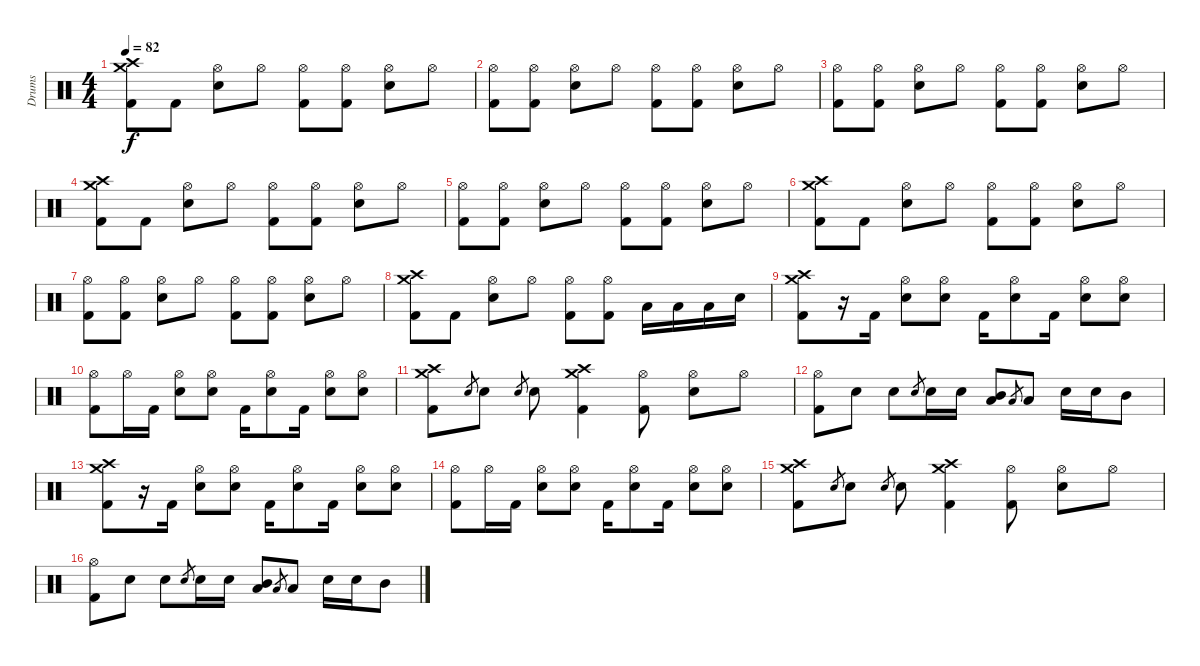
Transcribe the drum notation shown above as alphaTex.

\track ("Drums" "Drums") {instrument percussion}
\staff {score}
\articulation defaults
\ts (4 4)
\tempo 82
\clef neutral
\ks c
("Crash high (hit)" "Crash medium (hit)" "Kick (hit) 2").8{dy f} "Kick (hit) 2".8 ("Hi-Hat (open)" "Electric Snare (hit)").8 "Hi-Hat (open)".8 ("Hi-Hat (open)" "Kick (hit) 2").8 ("Hi-Hat (open)" "Kick (hit) 2").8 ("Hi-Hat (open)" "Electric Snare (hit)").8 "Hi-Hat (open)".8 |
("Hi-Hat (open)" "Kick (hit) 2").8 ("Hi-Hat (open)" "Kick (hit) 2").8 ("Hi-Hat (open)" "Electric Snare (hit)").8 "Hi-Hat (open)".8 ("Hi-Hat (open)" "Kick (hit) 2").8 ("Hi-Hat (open)" "Kick (hit) 2").8 ("Hi-Hat (open)" "Electric Snare (hit)").8 "Hi-Hat (open)".8 |
("Hi-Hat (open)" "Kick (hit) 2").8 ("Hi-Hat (open)" "Kick (hit) 2").8 ("Hi-Hat (open)" "Electric Snare (hit)").8 "Hi-Hat (open)".8 ("Hi-Hat (open)" "Kick (hit) 2").8 ("Hi-Hat (open)" "Kick (hit) 2").8 ("Hi-Hat (open)" "Electric Snare (hit)").8 "Hi-Hat (open)".8 |
("Crash high (hit)" "Crash medium (hit)" "Kick (hit) 2").8 "Kick (hit) 2".8 ("Hi-Hat (open)" "Electric Snare (hit)").8 "Hi-Hat (open)".8 ("Hi-Hat (open)" "Kick (hit) 2").8 ("Hi-Hat (open)" "Kick (hit) 2").8 ("Hi-Hat (open)" "Electric Snare (hit)").8 "Hi-Hat (open)".8 |
("Hi-Hat (open)" "Kick (hit) 2").8 ("Hi-Hat (open)" "Kick (hit) 2").8 ("Hi-Hat (open)" "Electric Snare (hit)").8 "Hi-Hat (open)".8 ("Hi-Hat (open)" "Kick (hit) 2").8 ("Hi-Hat (open)" "Kick (hit) 2").8 ("Hi-Hat (open)" "Electric Snare (hit)").8 "Hi-Hat (open)".8 |
("Crash high (hit)" "Crash medium (hit)" "Kick (hit) 2").8 "Kick (hit) 2".8 ("Hi-Hat (open)" "Electric Snare (hit)").8 "Hi-Hat (open)".8 ("Hi-Hat (open)" "Kick (hit) 2").8 ("Hi-Hat (open)" "Kick (hit) 2").8 ("Hi-Hat (open)" "Electric Snare (hit)").8 "Hi-Hat (open)".8 |
("Hi-Hat (open)" "Kick (hit) 2").8 ("Hi-Hat (open)" "Kick (hit) 2").8 ("Hi-Hat (open)" "Electric Snare (hit)").8 "Hi-Hat (open)".8 ("Hi-Hat (open)" "Kick (hit) 2").8 ("Hi-Hat (open)" "Kick (hit) 2").8 ("Hi-Hat (open)" "Electric Snare (hit)").8 "Hi-Hat (open)".8 |
("Crash high (hit)" "Crash medium (hit)" "Kick (hit) 2").8 "Kick (hit) 2".8 ("Hi-Hat (open)" "Electric Snare (hit)").8 "Hi-Hat (open)".8 ("Hi-Hat (open)" "Kick (hit) 2").8 ("Hi-Hat (open)" "Kick (hit) 2").8 "Low Tom (hit)".16 "Low Tom (hit)".16 "Low Tom (hit)".16 "Electric Snare (hit)".16 |
("Crash high (hit)" "Crash medium (hit)" "Kick (hit) 2").8 r.16 "Kick (hit) 2".16 ("Hi-Hat (open)" "Electric Snare (hit)").8 ("Hi-Hat (open)" "Electric Snare (hit)").8 "Kick (hit) 2".16 ("Hi-Hat (open)" "Electric Snare (hit)").8 "Kick (hit) 2".16 ("Hi-Hat (open)" "Electric Snare (hit)").8 ("Hi-Hat (open)" "Electric Snare (hit)").8 |
("Hi-Hat (open)" "Kick (hit) 2").8 "Hi-Hat (open)".16 "Kick (hit) 2".16 ("Hi-Hat (open)" "Electric Snare (hit)").8 ("Hi-Hat (open)" "Electric Snare (hit)").8 "Kick (hit) 2".16 ("Hi-Hat (open)" "Electric Snare (hit)").8 "Kick (hit) 2".16 ("Hi-Hat (open)" "Electric Snare (hit)").8 ("Hi-Hat (open)" "Electric Snare (hit)").8 |
("Crash high (hit)" "Crash medium (hit)" "Kick (hit) 2").8 "Electric Snare (hit)".8{gr} "Electric Snare (hit)".8 "Electric Snare (hit)".8{gr} "Electric Snare (hit)".8 ("Crash high (hit)" "Crash medium (hit)" "Kick (hit) 2").4 ("Hi-Hat (open)" "Kick (hit) 2").8 ("Hi-Hat (open)" "Electric Snare (hit)").8 "Hi-Hat (open)".8 |
("Hi-Hat (open)" "Kick (hit) 2").8 "Electric Snare (hit)".8 "Electric Snare (hit)".8 "Electric Snare (hit)".8{gr} "Electric Snare (hit)".16 "Electric Snare (hit)".16 ("Mid Tom (hit)" "Low Tom (hit)").8 "Low Tom (hit)".8{gr} "Low Tom (hit)".8 "Electric Snare (hit)".16 "Electric Snare (hit)".16 "Mid Tom (hit)".8 |
("Crash high (hit)" "Crash medium (hit)" "Kick (hit) 2").8 r.16 "Kick (hit) 2".16 ("Hi-Hat (open)" "Electric Snare (hit)").8 ("Hi-Hat (open)" "Electric Snare (hit)").8 "Kick (hit) 2".16 ("Hi-Hat (open)" "Electric Snare (hit)").8 "Kick (hit) 2".16 ("Hi-Hat (open)" "Electric Snare (hit)").8 ("Hi-Hat (open)" "Electric Snare (hit)").8 |
("Hi-Hat (open)" "Kick (hit) 2").8 "Hi-Hat (open)".16 "Kick (hit) 2".16 ("Hi-Hat (open)" "Electric Snare (hit)").8 ("Hi-Hat (open)" "Electric Snare (hit)").8 "Kick (hit) 2".16 ("Hi-Hat (open)" "Electric Snare (hit)").8 "Kick (hit) 2".16 ("Hi-Hat (open)" "Electric Snare (hit)").8 ("Hi-Hat (open)" "Electric Snare (hit)").8 |
("Crash high (hit)" "Crash medium (hit)" "Kick (hit) 2").8 "Electric Snare (hit)".8{gr} "Electric Snare (hit)".8 "Electric Snare (hit)".8{gr} "Electric Snare (hit)".8 ("Crash high (hit)" "Crash medium (hit)" "Kick (hit) 2").4 ("Hi-Hat (open)" "Kick (hit) 2").8 ("Hi-Hat (open)" "Electric Snare (hit)").8 "Hi-Hat (open)".8 |
("Hi-Hat (open)" "Kick (hit) 2").8 "Electric Snare (hit)".8 "Electric Snare (hit)".8 "Electric Snare (hit)".8{gr} "Electric Snare (hit)".16 "Electric Snare (hit)".16 ("Mid Tom (hit)" "Low Tom (hit)").8 "Low Tom (hit)".8{gr} "Low Tom (hit)".8 "Electric Snare (hit)".16 "Electric Snare (hit)".16 "Mid Tom (hit)".8
